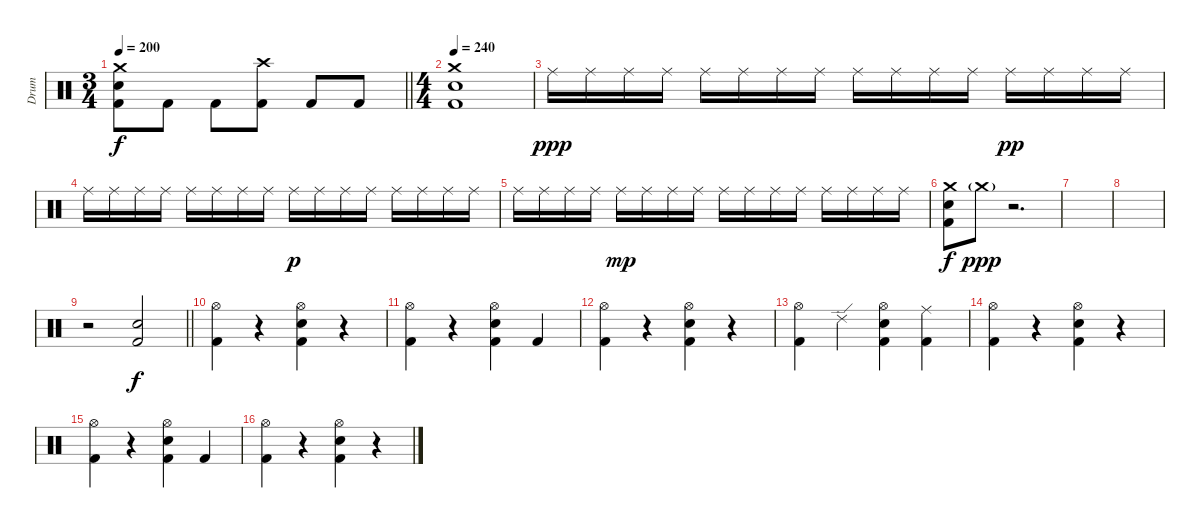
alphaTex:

\track ("Drum" "Drum") {instrument percussion}
\staff {score}
\articulation defaults
\ts (3 4)
\tempo 200
\clef neutral
\barLineRight lightlight
\ks c
("Crash medium (hit)" "Electric Snare (hit)" "Kick (hit) 2").8{dy f} "Kick (hit) 2".8 "Kick (hit) 2".8 ("Crash high (hit)" "Kick (hit) 2").8 "Kick (hit) 2".8 "Kick (hit) 2".8 |
\ts (4 4)
\tempo 240
("Crash medium (hit)" "Electric Snare (hit)" "Kick (hit) 2").1 |
"Ride (middle)".16{dy ppp} "Ride (middle)".16 "Ride (middle)".16 "Ride (middle)".16 "Ride (middle)".16 "Ride (middle)".16 "Ride (middle)".16 "Ride (middle)".16 "Ride (middle)".16 "Ride (middle)".16 "Ride (middle)".16 "Ride (middle)".16 "Ride (middle)".16{dy pp} "Ride (middle)".16 "Ride (middle)".16 "Ride (middle)".16 |
"Ride (middle)".16 "Ride (middle)".16 "Ride (middle)".16 "Ride (middle)".16 "Ride (middle)".16 "Ride (middle)".16 "Ride (middle)".16 "Ride (middle)".16 "Ride (middle)".16{dy p} "Ride (middle)".16 "Ride (middle)".16 "Ride (middle)".16 "Ride (middle)".16 "Ride (middle)".16 "Ride (middle)".16 "Ride (middle)".16 |
"Ride (middle)".16 "Ride (middle)".16 "Ride (middle)".16 "Ride (middle)".16 "Ride (middle)".16{dy mp} "Ride (middle)".16 "Ride (middle)".16 "Ride (middle)".16 "Ride (middle)".16 "Ride (middle)".16 "Ride (middle)".16 "Ride (middle)".16 "Ride (middle)".16 "Ride (middle)".16 "Ride (middle)".16 "Ride (middle)".16 |
("Crash medium (hit)" "Electric Snare (hit)" "Kick (hit) 2").8{dy f} "Crash medium (hit)"{g}.8{dy ppp} r.2{d} |
|
|
\barLineRight lightlight
r.2 ("Electric Snare (hit)" "Kick (hit) 2").2{dy f} |
("Hi-Hat (open)" "Kick (hit) 2").4 r.4 ("Hi-Hat (open)" "Electric Snare (hit)" "Kick (hit) 2").4 r.4 |
("Hi-Hat (open)" "Kick (hit) 2").4 r.4 ("Hi-Hat (open)" "Electric Snare (hit)" "Kick (hit) 2").4 "Kick (hit) 2".4 |
("Hi-Hat (open)" "Kick (hit) 2").4 r.4 ("Hi-Hat (open)" "Electric Snare (hit)" "Kick (hit) 2").4 r.4 |
("Hi-Hat (open)" "Kick (hit) 2").4 "Ride (edge) 2".4 ("Hi-Hat (open)" "Electric Snare (hit)" "Kick (hit) 2").4 ("Ride (middle)" "Kick (hit) 2").4 |
("Hi-Hat (open)" "Kick (hit) 2").4 r.4 ("Hi-Hat (open)" "Electric Snare (hit)" "Kick (hit) 2").4 r.4 |
("Hi-Hat (open)" "Kick (hit) 2").4 r.4 ("Hi-Hat (open)" "Electric Snare (hit)" "Kick (hit) 2").4 "Kick (hit) 2".4 |
("Hi-Hat (open)" "Kick (hit) 2").4 r.4 ("Hi-Hat (open)" "Electric Snare (hit)" "Kick (hit) 2").4 r.4
